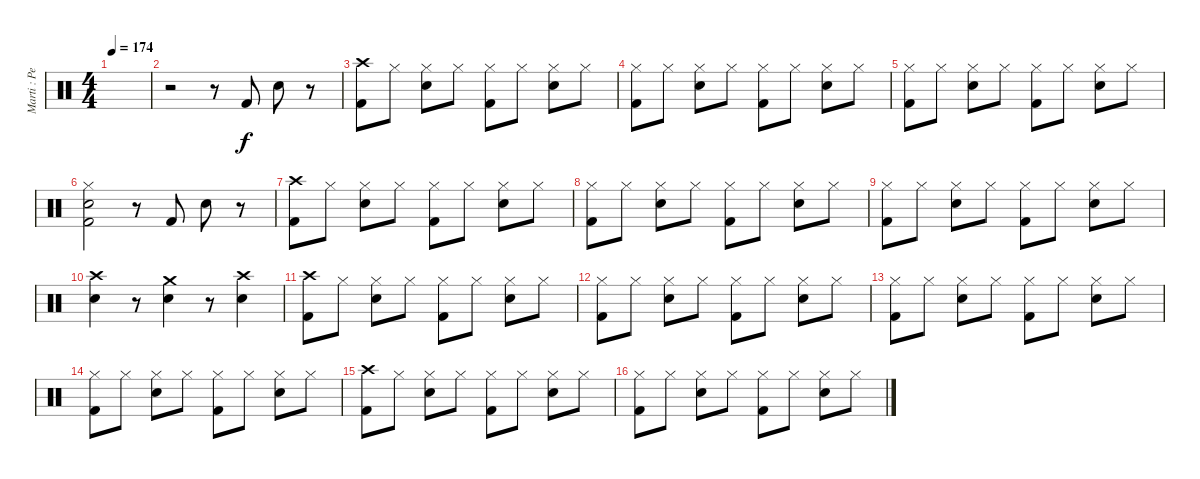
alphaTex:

\track ("Marti : Percussion" "Marti : Pe") {instrument percussion}
\staff {score}
\articulation defaults
\ts (4 4)
\tempo 174
\clef neutral
\ks c
|
r.2 r.8 "Kick (hit) 2".8 "Electric Snare (hit)".8 r.8 |
("Kick (hit) 2" "Crash high (hit)").8 "Hi-Hat (closed)".8 ("Electric Snare (hit)" "Hi-Hat (closed)").8 "Hi-Hat (closed)".8 ("Kick (hit) 2" "Hi-Hat (closed)").8 "Hi-Hat (closed)".8 ("Electric Snare (hit)" "Hi-Hat (closed)").8 "Hi-Hat (closed)".8 |
("Kick (hit) 2" "Hi-Hat (closed)").8 "Hi-Hat (closed)".8 ("Electric Snare (hit)" "Hi-Hat (closed)").8 "Hi-Hat (closed)".8 ("Kick (hit) 2" "Hi-Hat (closed)").8 "Hi-Hat (closed)".8 ("Electric Snare (hit)" "Hi-Hat (closed)").8 "Hi-Hat (closed)".8 |
("Kick (hit) 2" "Hi-Hat (closed)").8 "Hi-Hat (closed)".8 ("Electric Snare (hit)" "Hi-Hat (closed)").8 "Hi-Hat (closed)".8 ("Kick (hit) 2" "Hi-Hat (closed)").8 "Hi-Hat (closed)".8 ("Electric Snare (hit)" "Hi-Hat (closed)").8 "Hi-Hat (closed)".8 |
("Electric Snare (hit)" "Kick (hit) 2" "Hi-Hat (closed)").2 r.8 "Kick (hit) 2".8 "Electric Snare (hit)".8 r.8 |
("Kick (hit) 2" "Crash high (hit)").8 "Hi-Hat (closed)".8 ("Electric Snare (hit)" "Hi-Hat (closed)").8 "Hi-Hat (closed)".8 ("Kick (hit) 2" "Hi-Hat (closed)").8 "Hi-Hat (closed)".8 ("Electric Snare (hit)" "Hi-Hat (closed)").8 "Hi-Hat (closed)".8 |
("Kick (hit) 2" "Hi-Hat (closed)").8 "Hi-Hat (closed)".8 ("Electric Snare (hit)" "Hi-Hat (closed)").8 "Hi-Hat (closed)".8 ("Kick (hit) 2" "Hi-Hat (closed)").8 "Hi-Hat (closed)".8 ("Electric Snare (hit)" "Hi-Hat (closed)").8 "Hi-Hat (closed)".8 |
("Kick (hit) 2" "Hi-Hat (closed)").8 "Hi-Hat (closed)".8 ("Electric Snare (hit)" "Hi-Hat (closed)").8 "Hi-Hat (closed)".8 ("Kick (hit) 2" "Hi-Hat (closed)").8 "Hi-Hat (closed)".8 ("Electric Snare (hit)" "Hi-Hat (closed)").8 "Hi-Hat (closed)".8 |
("Electric Snare (hit)" "Crash high (hit)").4 r.8 ("Electric Snare (hit)" "Crash medium (hit)").4 r.8 ("Electric Snare (hit)" "Crash high (hit)").4 |
("Kick (hit) 2" "Crash high (hit)").8 "Hi-Hat (closed)".8 ("Electric Snare (hit)" "Hi-Hat (closed)").8 "Hi-Hat (closed)".8 ("Kick (hit) 2" "Hi-Hat (closed)").8 "Hi-Hat (closed)".8 ("Electric Snare (hit)" "Hi-Hat (closed)").8 "Hi-Hat (closed)".8 |
("Kick (hit) 2" "Hi-Hat (closed)").8 "Hi-Hat (closed)".8 ("Electric Snare (hit)" "Hi-Hat (closed)").8 "Hi-Hat (closed)".8 ("Kick (hit) 2" "Hi-Hat (closed)").8 "Hi-Hat (closed)".8 ("Electric Snare (hit)" "Hi-Hat (closed)").8 "Hi-Hat (closed)".8 |
("Kick (hit) 2" "Hi-Hat (closed)").8 "Hi-Hat (closed)".8 ("Electric Snare (hit)" "Hi-Hat (closed)").8 "Hi-Hat (closed)".8 ("Kick (hit) 2" "Hi-Hat (closed)").8 "Hi-Hat (closed)".8 ("Electric Snare (hit)" "Hi-Hat (closed)").8 "Hi-Hat (closed)".8 |
("Kick (hit) 2" "Hi-Hat (closed)").8 "Hi-Hat (closed)".8 ("Electric Snare (hit)" "Hi-Hat (closed)").8 "Hi-Hat (closed)".8 ("Kick (hit) 2" "Hi-Hat (closed)").8 "Hi-Hat (closed)".8 ("Electric Snare (hit)" "Hi-Hat (closed)").8 "Hi-Hat (closed)".8 |
("Kick (hit) 2" "Crash high (hit)").8 "Hi-Hat (closed)".8 ("Electric Snare (hit)" "Hi-Hat (closed)").8 "Hi-Hat (closed)".8 ("Kick (hit) 2" "Hi-Hat (closed)").8 "Hi-Hat (closed)".8 ("Electric Snare (hit)" "Hi-Hat (closed)").8 "Hi-Hat (closed)".8 |
("Kick (hit) 2" "Hi-Hat (closed)").8 "Hi-Hat (closed)".8 ("Electric Snare (hit)" "Hi-Hat (closed)").8 "Hi-Hat (closed)".8 ("Kick (hit) 2" "Hi-Hat (closed)").8 "Hi-Hat (closed)".8 ("Electric Snare (hit)" "Hi-Hat (closed)").8 "Hi-Hat (closed)".8
